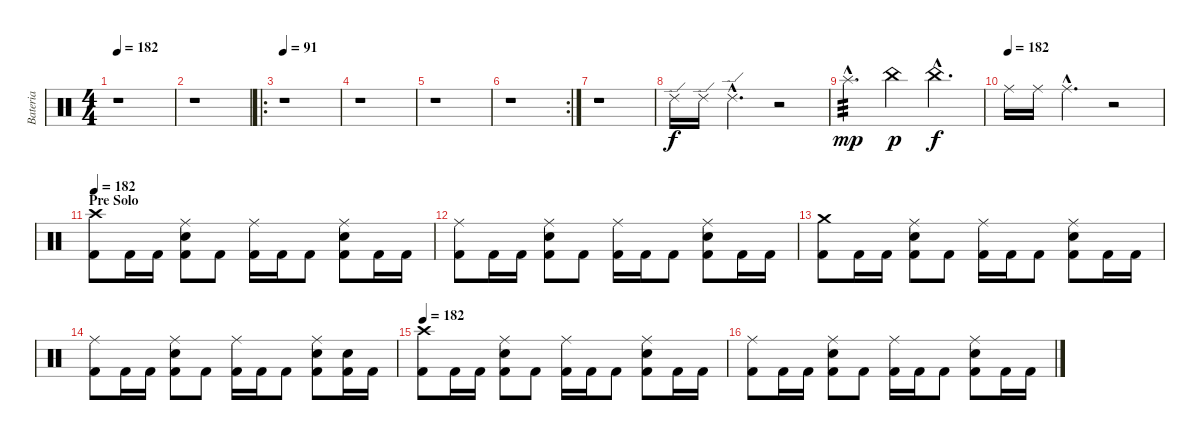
\track ("Bateria" "Bateria") {instrument percussion}
\staff {score}
\articulation defaults
\ts (4 4)
\tempo 182
\clef neutral
\ks c
r.1{dy f} |
r.1 |
\ro
\tempo 91
r.1 |
r.1 |
r.1 |
\rc 2
r.1 |
r.1 |
"Ride (edge) 2".16 "Ride (edge) 2".16 "Ride (edge) 2"{hac}.4{d} r.2 |
"Splash (hit)"{hac}.4{d tp 3 dy mp} "China (hit)".4{dy p} "China (hit)"{hac}.4{d dy f} |
\tempo (182)
"Ride (middle)".16 "Ride (middle)".16 "Ride (middle)"{hac}.4{d} r.2 |
\section ("" "Pre Solo")
\tempo 182
("Crash high (hit)" "Kick (hit) 2").8 "Kick (hit) 2".16 "Kick (hit) 2".16 ("Ride (middle)" "Snare (hit) 2" "Kick (hit) 2").8 "Kick (hit) 2".8 ("Ride (middle)" "Kick (hit) 2").16 "Kick (hit) 2".16 "Kick (hit) 2".8 ("Ride (middle)" "Snare (hit) 2" "Kick (hit) 2").8 "Kick (hit) 2".16 "Kick (hit) 2".16 |
("Ride (middle)" "Kick (hit) 2").8 "Kick (hit) 2".16 "Kick (hit) 2".16 ("Ride (middle)" "Snare (hit) 2" "Kick (hit) 2").8 "Kick (hit) 2".8 ("Ride (middle)" "Kick (hit) 2").16 "Kick (hit) 2".16 "Kick (hit) 2".8 ("Ride (middle)" "Snare (hit) 2" "Kick (hit) 2").8 "Kick (hit) 2".16 "Kick (hit) 2".16 |
("Crash medium (hit)" "Kick (hit) 2").8 "Kick (hit) 2".16 "Kick (hit) 2".16 ("Ride (middle)" "Snare (hit) 2" "Kick (hit) 2").8 "Kick (hit) 2".8 ("Ride (middle)" "Kick (hit) 2").16 "Kick (hit) 2".16 "Kick (hit) 2".8 ("Ride (middle)" "Snare (hit) 2" "Kick (hit) 2").8 "Kick (hit) 2".16 "Kick (hit) 2".16 |
("Ride (middle)" "Kick (hit) 2").8 "Kick (hit) 2".16 "Kick (hit) 2".16 ("Ride (middle)" "Snare (hit) 2" "Kick (hit) 2").8 "Kick (hit) 2".8 ("Ride (middle)" "Kick (hit) 2").16 "Kick (hit) 2".16 "Kick (hit) 2".8 ("Ride (middle)" "Snare (hit) 2" "Kick (hit) 2").8 ("Snare (hit) 2" "Kick (hit) 2").16 "Kick (hit) 2".16 |
\tempo 182
("Crash high (hit)" "Kick (hit) 2").8 "Kick (hit) 2".16 "Kick (hit) 2".16 ("Ride (middle)" "Snare (hit) 2" "Kick (hit) 2").8 "Kick (hit) 2".8 ("Ride (middle)" "Kick (hit) 2").16 "Kick (hit) 2".16 "Kick (hit) 2".8 ("Ride (middle)" "Snare (hit) 2" "Kick (hit) 2").8 "Kick (hit) 2".16 "Kick (hit) 2".16 |
("Ride (middle)" "Kick (hit) 2").8 "Kick (hit) 2".16 "Kick (hit) 2".16 ("Ride (middle)" "Snare (hit) 2" "Kick (hit) 2").8 "Kick (hit) 2".8 ("Ride (middle)" "Kick (hit) 2").16 "Kick (hit) 2".16 "Kick (hit) 2".8 ("Ride (middle)" "Snare (hit) 2" "Kick (hit) 2").8 "Kick (hit) 2".16 "Kick (hit) 2".16
